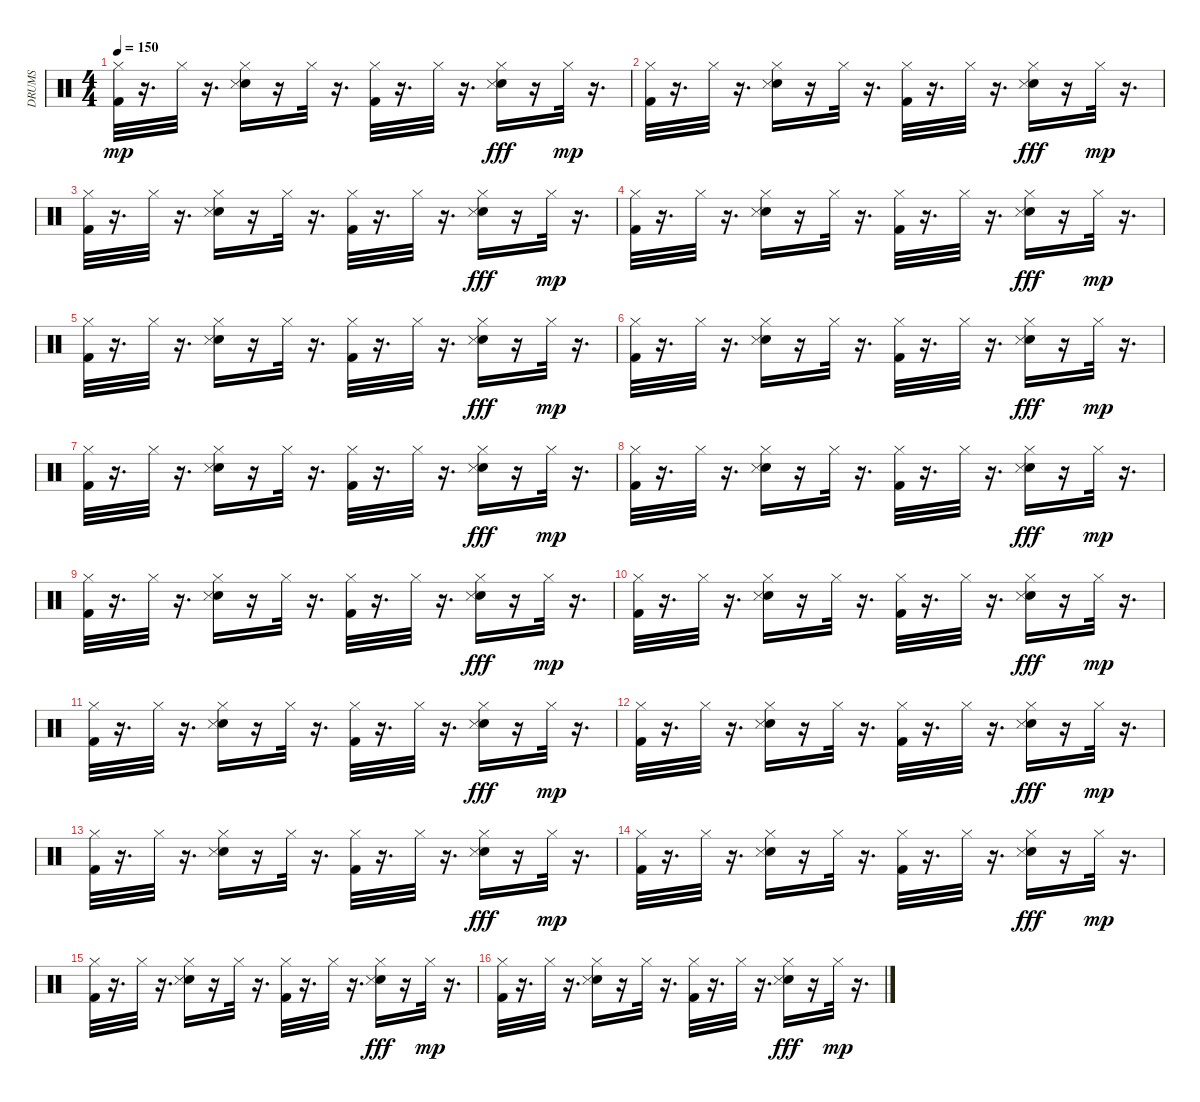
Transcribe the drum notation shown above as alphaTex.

\track ("DRUMS" "DRUMS") {instrument percussion}
\staff {score}
\articulation defaults
\ts (4 4)
\tempo 150
\clef neutral
\ks c
("Hi-Hat (closed)" "Kick (hit) 2").32{dy mp} r.16{d} "Hi-Hat (closed)".32 r.16{d} ("Snare (hit) 2" "Snare (side stick) 3" "Hi-Hat (closed)").16 r.16 "Hi-Hat (closed)".32 r.16{d} ("Kick (hit) 2" "Hi-Hat (closed)").32 r.16{d} "Hi-Hat (closed)".32 r.16{d} ("Snare (hit) 2" "Hi-Hat (closed)" "Snare (side stick) 3").16{dy fff} r.16 "Hi-Hat (closed)".32{dy mp} r.16{d} |
("Hi-Hat (closed)" "Kick (hit) 2").32 r.16{d} "Hi-Hat (closed)".32 r.16{d} ("Snare (hit) 2" "Snare (side stick) 3" "Hi-Hat (closed)").16 r.16 "Hi-Hat (closed)".32 r.16{d} ("Kick (hit) 2" "Hi-Hat (closed)").32 r.16{d} "Hi-Hat (closed)".32 r.16{d} ("Snare (hit) 2" "Hi-Hat (closed)" "Snare (side stick) 3").16{dy fff} r.16 "Hi-Hat (closed)".32{dy mp} r.16{d} |
("Hi-Hat (closed)" "Kick (hit) 2").32 r.16{d} "Hi-Hat (closed)".32 r.16{d} ("Snare (hit) 2" "Snare (side stick) 3" "Hi-Hat (closed)").16 r.16 "Hi-Hat (closed)".32 r.16{d} ("Kick (hit) 2" "Hi-Hat (closed)").32 r.16{d} "Hi-Hat (closed)".32 r.16{d} ("Snare (hit) 2" "Hi-Hat (closed)" "Snare (side stick) 3").16{dy fff} r.16 "Hi-Hat (closed)".32{dy mp} r.16{d} |
("Hi-Hat (closed)" "Kick (hit) 2").32 r.16{d} "Hi-Hat (closed)".32 r.16{d} ("Snare (hit) 2" "Snare (side stick) 3" "Hi-Hat (closed)").16 r.16 "Hi-Hat (closed)".32 r.16{d} ("Kick (hit) 2" "Hi-Hat (closed)").32 r.16{d} "Hi-Hat (closed)".32 r.16{d} ("Snare (hit) 2" "Hi-Hat (closed)" "Snare (side stick) 3").16{dy fff} r.16 "Hi-Hat (closed)".32{dy mp} r.16{d} |
("Hi-Hat (closed)" "Kick (hit) 2").32 r.16{d} "Hi-Hat (closed)".32 r.16{d} ("Snare (hit) 2" "Snare (side stick) 3" "Hi-Hat (closed)").16 r.16 "Hi-Hat (closed)".32 r.16{d} ("Kick (hit) 2" "Hi-Hat (closed)").32 r.16{d} "Hi-Hat (closed)".32 r.16{d} ("Snare (hit) 2" "Hi-Hat (closed)" "Snare (side stick) 3").16{dy fff} r.16 "Hi-Hat (closed)".32{dy mp} r.16{d} |
("Hi-Hat (closed)" "Kick (hit) 2").32 r.16{d} "Hi-Hat (closed)".32 r.16{d} ("Snare (hit) 2" "Snare (side stick) 3" "Hi-Hat (closed)").16 r.16 "Hi-Hat (closed)".32 r.16{d} ("Kick (hit) 2" "Hi-Hat (closed)").32 r.16{d} "Hi-Hat (closed)".32 r.16{d} ("Snare (hit) 2" "Hi-Hat (closed)" "Snare (side stick) 3").16{dy fff} r.16 "Hi-Hat (closed)".32{dy mp} r.16{d} |
("Hi-Hat (closed)" "Kick (hit) 2").32 r.16{d} "Hi-Hat (closed)".32 r.16{d} ("Snare (hit) 2" "Snare (side stick) 3" "Hi-Hat (closed)").16 r.16 "Hi-Hat (closed)".32 r.16{d} ("Kick (hit) 2" "Hi-Hat (closed)").32 r.16{d} "Hi-Hat (closed)".32 r.16{d} ("Snare (hit) 2" "Hi-Hat (closed)" "Snare (side stick) 3").16{dy fff} r.16 "Hi-Hat (closed)".32{dy mp} r.16{d} |
("Hi-Hat (closed)" "Kick (hit) 2").32 r.16{d} "Hi-Hat (closed)".32 r.16{d} ("Snare (hit) 2" "Snare (side stick) 3" "Hi-Hat (closed)").16 r.16 "Hi-Hat (closed)".32 r.16{d} ("Kick (hit) 2" "Hi-Hat (closed)").32 r.16{d} "Hi-Hat (closed)".32 r.16{d} ("Snare (hit) 2" "Hi-Hat (closed)" "Snare (side stick) 3").16{dy fff} r.16 "Hi-Hat (closed)".32{dy mp} r.16{d} |
("Hi-Hat (closed)" "Kick (hit) 2").32 r.16{d} "Hi-Hat (closed)".32 r.16{d} ("Snare (hit) 2" "Snare (side stick) 3" "Hi-Hat (closed)").16 r.16 "Hi-Hat (closed)".32 r.16{d} ("Kick (hit) 2" "Hi-Hat (closed)").32 r.16{d} "Hi-Hat (closed)".32 r.16{d} ("Snare (hit) 2" "Hi-Hat (closed)" "Snare (side stick) 3").16{dy fff} r.16 "Hi-Hat (closed)".32{dy mp} r.16{d} |
("Hi-Hat (closed)" "Kick (hit) 2").32 r.16{d} "Hi-Hat (closed)".32 r.16{d} ("Snare (hit) 2" "Snare (side stick) 3" "Hi-Hat (closed)").16 r.16 "Hi-Hat (closed)".32 r.16{d} ("Kick (hit) 2" "Hi-Hat (closed)").32 r.16{d} "Hi-Hat (closed)".32 r.16{d} ("Snare (hit) 2" "Hi-Hat (closed)" "Snare (side stick) 3").16{dy fff} r.16 "Hi-Hat (closed)".32{dy mp} r.16{d} |
("Hi-Hat (closed)" "Kick (hit) 2").32 r.16{d} "Hi-Hat (closed)".32 r.16{d} ("Snare (hit) 2" "Snare (side stick) 3" "Hi-Hat (closed)").16 r.16 "Hi-Hat (closed)".32 r.16{d} ("Kick (hit) 2" "Hi-Hat (closed)").32 r.16{d} "Hi-Hat (closed)".32 r.16{d} ("Snare (hit) 2" "Hi-Hat (closed)" "Snare (side stick) 3").16{dy fff} r.16 "Hi-Hat (closed)".32{dy mp} r.16{d} |
("Hi-Hat (closed)" "Kick (hit) 2").32 r.16{d} "Hi-Hat (closed)".32 r.16{d} ("Snare (hit) 2" "Snare (side stick) 3" "Hi-Hat (closed)").16 r.16 "Hi-Hat (closed)".32 r.16{d} ("Kick (hit) 2" "Hi-Hat (closed)").32 r.16{d} "Hi-Hat (closed)".32 r.16{d} ("Snare (hit) 2" "Hi-Hat (closed)" "Snare (side stick) 3").16{dy fff} r.16 "Hi-Hat (closed)".32{dy mp} r.16{d} |
("Hi-Hat (closed)" "Kick (hit) 2").32 r.16{d} "Hi-Hat (closed)".32 r.16{d} ("Snare (hit) 2" "Snare (side stick) 3" "Hi-Hat (closed)").16 r.16 "Hi-Hat (closed)".32 r.16{d} ("Kick (hit) 2" "Hi-Hat (closed)").32 r.16{d} "Hi-Hat (closed)".32 r.16{d} ("Snare (hit) 2" "Hi-Hat (closed)" "Snare (side stick) 3").16{dy fff} r.16 "Hi-Hat (closed)".32{dy mp} r.16{d} |
("Hi-Hat (closed)" "Kick (hit) 2").32 r.16{d} "Hi-Hat (closed)".32 r.16{d} ("Snare (hit) 2" "Snare (side stick) 3" "Hi-Hat (closed)").16 r.16 "Hi-Hat (closed)".32 r.16{d} ("Kick (hit) 2" "Hi-Hat (closed)").32 r.16{d} "Hi-Hat (closed)".32 r.16{d} ("Snare (hit) 2" "Hi-Hat (closed)" "Snare (side stick) 3").16{dy fff} r.16 "Hi-Hat (closed)".32{dy mp} r.16{d} |
("Hi-Hat (closed)" "Kick (hit) 2").32 r.16{d} "Hi-Hat (closed)".32 r.16{d} ("Snare (hit) 2" "Snare (side stick) 3" "Hi-Hat (closed)").16 r.16 "Hi-Hat (closed)".32 r.16{d} ("Kick (hit) 2" "Hi-Hat (closed)").32 r.16{d} "Hi-Hat (closed)".32 r.16{d} ("Snare (hit) 2" "Hi-Hat (closed)" "Snare (side stick) 3").16{dy fff} r.16 "Hi-Hat (closed)".32{dy mp} r.16{d} |
("Hi-Hat (closed)" "Kick (hit) 2").32 r.16{d} "Hi-Hat (closed)".32 r.16{d} ("Snare (hit) 2" "Snare (side stick) 3" "Hi-Hat (closed)").16 r.16 "Hi-Hat (closed)".32 r.16{d} ("Kick (hit) 2" "Hi-Hat (closed)").32 r.16{d} "Hi-Hat (closed)".32 r.16{d} ("Snare (hit) 2" "Hi-Hat (closed)" "Snare (side stick) 3").16{dy fff} r.16 "Hi-Hat (closed)".32{dy mp} r.16{d}
